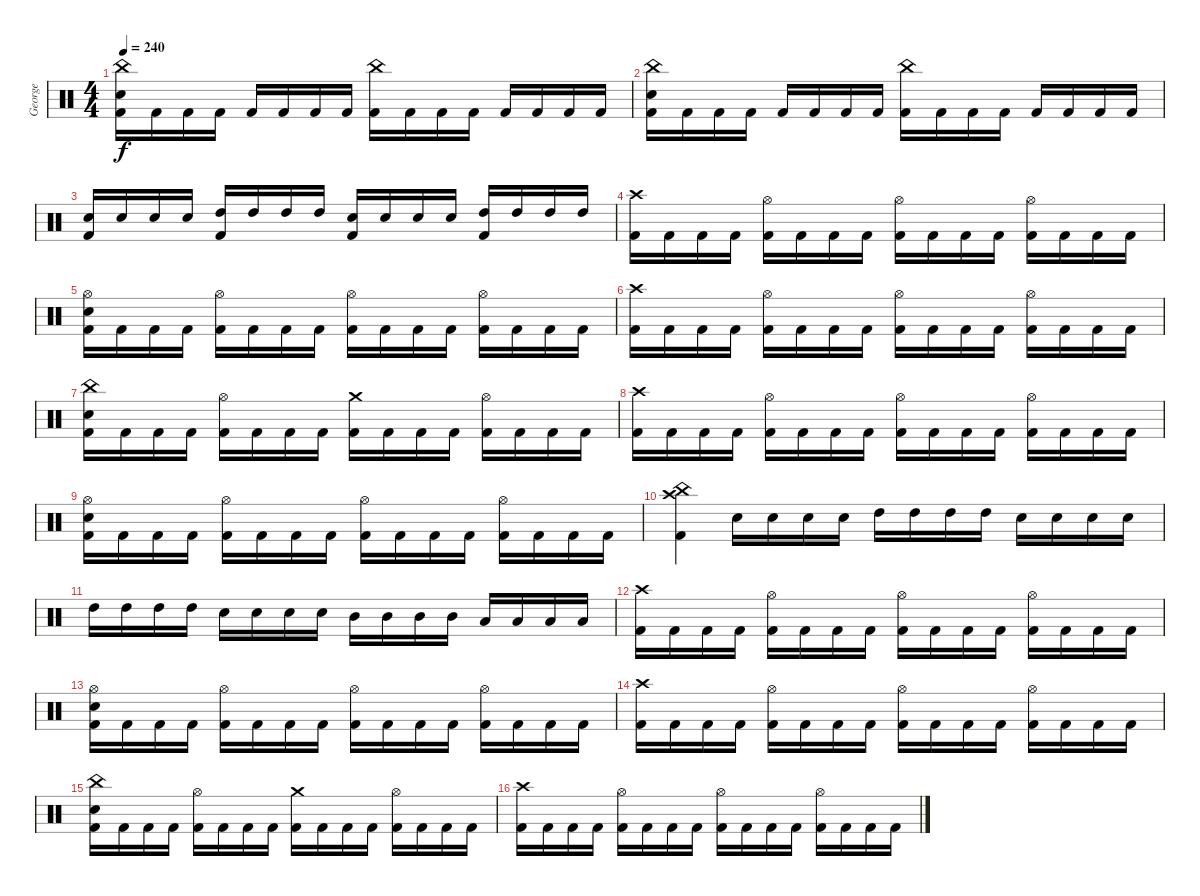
\track ("George" "George") {instrument percussion}
\staff {score}
\articulation defaults
\ts (4 4)
\tempo 240
\clef neutral
\ks c
("China (hit)" "Snare (hit) 2" "Kick (hit) 2").16{dy f} "Kick (hit) 2".16 "Kick (hit) 2".16 "Kick (hit) 2".16 "Kick (hit) 2".16 "Kick (hit) 2".16 "Kick (hit) 2".16 "Kick (hit) 2".16 ("China (hit)" "Kick (hit) 2").16 "Kick (hit) 2".16 "Kick (hit) 2".16 "Kick (hit) 2".16 "Kick (hit) 2".16 "Kick (hit) 2".16 "Kick (hit) 2".16 "Kick (hit) 2".16 |
("China (hit)" "Snare (hit) 2" "Kick (hit) 2").16 "Kick (hit) 2".16 "Kick (hit) 2".16 "Kick (hit) 2".16 "Kick (hit) 2".16 "Kick (hit) 2".16 "Kick (hit) 2".16 "Kick (hit) 2".16 ("China (hit)" "Kick (hit) 2").16 "Kick (hit) 2".16 "Kick (hit) 2".16 "Kick (hit) 2".16 "Kick (hit) 2".16 "Kick (hit) 2".16 "Kick (hit) 2".16 "Kick (hit) 2".16 |
("Kick (hit) 2" "Snare (hit) 2").16 "Snare (hit) 2".16 "Snare (hit) 2".16 "Snare (hit) 2".16 ("Kick (hit) 2" "High Tom (hit)").16 "High Tom (hit)".16 "High Tom (hit)".16 "High Tom (hit)".16 ("Kick (hit) 2" "Snare (hit) 2").16 "Snare (hit) 2".16 "Snare (hit) 2".16 "Snare (hit) 2".16 ("Kick (hit) 2" "High Tom (hit)").16 "High Tom (hit)".16 "High Tom (hit)".16 "High Tom (hit)".16 |
("Crash high (hit)" "Kick (hit) 2").16 "Kick (hit) 2".16 "Kick (hit) 2".16 "Kick (hit) 2".16 ("Hi-Hat (open)" "Kick (hit) 2").16 "Kick (hit) 2".16 "Kick (hit) 2".16 "Kick (hit) 2".16 ("Hi-Hat (open)" "Kick (hit) 2").16 "Kick (hit) 2".16 "Kick (hit) 2".16 "Kick (hit) 2".16 ("Hi-Hat (open)" "Kick (hit) 2").16 "Kick (hit) 2".16 "Kick (hit) 2".16 "Kick (hit) 2".16 |
("Hi-Hat (open)" "Snare (hit) 2" "Kick (hit) 2").16 "Kick (hit) 2".16 "Kick (hit) 2".16 "Kick (hit) 2".16 ("Hi-Hat (open)" "Kick (hit) 2").16 "Kick (hit) 2".16 "Kick (hit) 2".16 "Kick (hit) 2".16 ("Hi-Hat (open)" "Kick (hit) 2").16 "Kick (hit) 2".16 "Kick (hit) 2".16 "Kick (hit) 2".16 ("Hi-Hat (open)" "Kick (hit) 2").16 "Kick (hit) 2".16 "Kick (hit) 2".16 "Kick (hit) 2".16 |
("Crash high (hit)" "Kick (hit) 2").16 "Kick (hit) 2".16 "Kick (hit) 2".16 "Kick (hit) 2".16 ("Hi-Hat (open)" "Kick (hit) 2").16 "Kick (hit) 2".16 "Kick (hit) 2".16 "Kick (hit) 2".16 ("Hi-Hat (open)" "Kick (hit) 2").16 "Kick (hit) 2".16 "Kick (hit) 2".16 "Kick (hit) 2".16 ("Hi-Hat (open)" "Kick (hit) 2").16 "Kick (hit) 2".16 "Kick (hit) 2".16 "Kick (hit) 2".16 |
("China (hit)" "Snare (hit) 2" "Kick (hit) 2").16 "Kick (hit) 2".16 "Kick (hit) 2".16 "Kick (hit) 2".16 ("Hi-Hat (open)" "Kick (hit) 2").16 "Kick (hit) 2".16 "Kick (hit) 2".16 "Kick (hit) 2".16 ("Crash medium (hit)" "Kick (hit) 2").16 "Kick (hit) 2".16 "Kick (hit) 2".16 "Kick (hit) 2".16 ("Hi-Hat (open)" "Kick (hit) 2").16 "Kick (hit) 2".16 "Kick (hit) 2".16 "Kick (hit) 2".16 |
("Crash high (hit)" "Kick (hit) 2").16 "Kick (hit) 2".16 "Kick (hit) 2".16 "Kick (hit) 2".16 ("Hi-Hat (open)" "Kick (hit) 2").16 "Kick (hit) 2".16 "Kick (hit) 2".16 "Kick (hit) 2".16 ("Hi-Hat (open)" "Kick (hit) 2").16 "Kick (hit) 2".16 "Kick (hit) 2".16 "Kick (hit) 2".16 ("Hi-Hat (open)" "Kick (hit) 2").16 "Kick (hit) 2".16 "Kick (hit) 2".16 "Kick (hit) 2".16 |
("Hi-Hat (open)" "Snare (hit) 2" "Kick (hit) 2").16 "Kick (hit) 2".16 "Kick (hit) 2".16 "Kick (hit) 2".16 ("Hi-Hat (open)" "Kick (hit) 2").16 "Kick (hit) 2".16 "Kick (hit) 2".16 "Kick (hit) 2".16 ("Hi-Hat (open)" "Kick (hit) 2").16 "Kick (hit) 2".16 "Kick (hit) 2".16 "Kick (hit) 2".16 ("Hi-Hat (open)" "Kick (hit) 2").16 "Kick (hit) 2".16 "Kick (hit) 2".16 "Kick (hit) 2".16 |
("Crash high (hit)" "Kick (hit) 2" "China (hit)").4 "Snare (hit) 2".16 "Snare (hit) 2".16 "Snare (hit) 2".16 "Snare (hit) 2".16 "High Tom (hit)".16 "High Tom (hit)".16 "High Tom (hit)".16 "High Tom (hit)".16 "Snare (hit) 2".16 "Snare (hit) 2".16 "Snare (hit) 2".16 "Snare (hit) 2".16 |
"High Tom (hit)".16 "High Tom (hit)".16 "High Tom (hit)".16 "High Tom (hit)".16 "Snare (hit) 2".16 "Snare (hit) 2".16 "Snare (hit) 2".16 "Snare (hit) 2".16 "Mid Tom (hit)".16 "Mid Tom (hit)".16 "Mid Tom (hit)".16 "Mid Tom (hit)".16 "Low Tom (hit)".16 "Low Tom (hit)".16 "Low Tom (hit)".16 "Low Tom (hit)".16 |
("Crash high (hit)" "Kick (hit) 2").16 "Kick (hit) 2".16 "Kick (hit) 2".16 "Kick (hit) 2".16 ("Hi-Hat (open)" "Kick (hit) 2").16 "Kick (hit) 2".16 "Kick (hit) 2".16 "Kick (hit) 2".16 ("Hi-Hat (open)" "Kick (hit) 2").16 "Kick (hit) 2".16 "Kick (hit) 2".16 "Kick (hit) 2".16 ("Hi-Hat (open)" "Kick (hit) 2").16 "Kick (hit) 2".16 "Kick (hit) 2".16 "Kick (hit) 2".16 |
("Hi-Hat (open)" "Snare (hit) 2" "Kick (hit) 2").16 "Kick (hit) 2".16 "Kick (hit) 2".16 "Kick (hit) 2".16 ("Hi-Hat (open)" "Kick (hit) 2").16 "Kick (hit) 2".16 "Kick (hit) 2".16 "Kick (hit) 2".16 ("Hi-Hat (open)" "Kick (hit) 2").16 "Kick (hit) 2".16 "Kick (hit) 2".16 "Kick (hit) 2".16 ("Hi-Hat (open)" "Kick (hit) 2").16 "Kick (hit) 2".16 "Kick (hit) 2".16 "Kick (hit) 2".16 |
("Crash high (hit)" "Kick (hit) 2").16 "Kick (hit) 2".16 "Kick (hit) 2".16 "Kick (hit) 2".16 ("Hi-Hat (open)" "Kick (hit) 2").16 "Kick (hit) 2".16 "Kick (hit) 2".16 "Kick (hit) 2".16 ("Hi-Hat (open)" "Kick (hit) 2").16 "Kick (hit) 2".16 "Kick (hit) 2".16 "Kick (hit) 2".16 ("Hi-Hat (open)" "Kick (hit) 2").16 "Kick (hit) 2".16 "Kick (hit) 2".16 "Kick (hit) 2".16 |
("China (hit)" "Snare (hit) 2" "Kick (hit) 2").16 "Kick (hit) 2".16 "Kick (hit) 2".16 "Kick (hit) 2".16 ("Hi-Hat (open)" "Kick (hit) 2").16 "Kick (hit) 2".16 "Kick (hit) 2".16 "Kick (hit) 2".16 ("Crash medium (hit)" "Kick (hit) 2").16 "Kick (hit) 2".16 "Kick (hit) 2".16 "Kick (hit) 2".16 ("Hi-Hat (open)" "Kick (hit) 2").16 "Kick (hit) 2".16 "Kick (hit) 2".16 "Kick (hit) 2".16 |
("Crash high (hit)" "Kick (hit) 2").16 "Kick (hit) 2".16 "Kick (hit) 2".16 "Kick (hit) 2".16 ("Hi-Hat (open)" "Kick (hit) 2").16 "Kick (hit) 2".16 "Kick (hit) 2".16 "Kick (hit) 2".16 ("Hi-Hat (open)" "Kick (hit) 2").16 "Kick (hit) 2".16 "Kick (hit) 2".16 "Kick (hit) 2".16 ("Hi-Hat (open)" "Kick (hit) 2").16 "Kick (hit) 2".16 "Kick (hit) 2".16 "Kick (hit) 2".16
